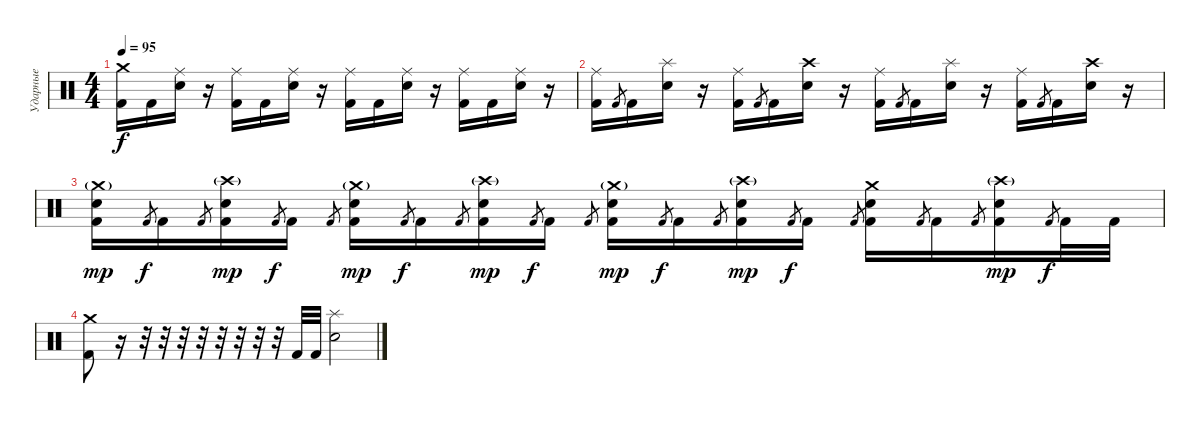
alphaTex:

\track ("Ударные" "Ударные") {instrument percussion}
\staff {score}
\articulation defaults
\ts (4 4)
\tempo 95
\clef neutral
\ks c
("Crash medium (hit)" "Kick (hit) 2").16{dy f} "Kick (hit) 2".16 ("Ride (middle)" "Electric Snare (hit)").16 r.16 ("Ride (middle)" "Kick (hit) 2").16 "Kick (hit) 2".16 ("Ride (middle)" "Electric Snare (hit)").16 r.16 ("Ride (middle)" "Kick (hit) 2").16 "Kick (hit) 2".16 ("Ride (middle)" "Electric Snare (hit)").16 r.16 ("Ride (middle)" "Kick (hit) 2").16 "Kick (hit) 2".16 ("Ride (middle)" "Electric Snare (hit)").16 r.16 |
("Ride (middle)" "Kick (hit) 2").16 "Kick (hit) 2".8{gr} "Kick (hit) 2".16 ("Splash (hit)" "Electric Snare (hit)").16 r.16 ("Ride (middle)" "Kick (hit) 2").16 "Kick (hit) 2".8{gr} "Kick (hit) 2".16 ("Crash high (hit)" "Electric Snare (hit)").16 r.16 ("Ride (middle)" "Kick (hit) 2").16 "Kick (hit) 2".8{gr} "Kick (hit) 2".16 ("Splash (hit)" "Electric Snare (hit)").16 r.16 ("Ride (middle)" "Kick (hit) 2").16 "Kick (hit) 2".8{gr} "Kick (hit) 2".16 ("Crash high (hit)" "Electric Snare (hit)").16 r.16 |
("Crash medium (hit)"{g} "Electric Snare (hit)" "Kick (hit) 2").16{dy mp} "Kick (hit) 2".8{gr dy f} "Kick (hit) 2".16 "Kick (hit) 2".8{gr} ("Crash high (hit)"{g} "Electric Snare (hit)" "Kick (hit) 2").16{dy mp} "Kick (hit) 2".8{gr dy f} "Kick (hit) 2".16 "Kick (hit) 2".8{gr} ("Crash medium (hit)"{g} "Electric Snare (hit)" "Kick (hit) 2").16{dy mp} "Kick (hit) 2".8{gr dy f} "Kick (hit) 2".16 "Kick (hit) 2".8{gr} ("Crash high (hit)"{g} "Electric Snare (hit)" "Kick (hit) 2").16{dy mp} "Kick (hit) 2".8{gr dy f} "Kick (hit) 2".16 "Kick (hit) 2".8{gr} ("Crash medium (hit)"{g} "Electric Snare (hit)" "Kick (hit) 2").16{dy mp} "Kick (hit) 2".8{gr dy f} "Kick (hit) 2".16 "Kick (hit) 2".8{gr} ("Crash high (hit)"{g} "Electric Snare (hit)" "Kick (hit) 2").16{dy mp} "Kick (hit) 2".8{gr dy f} "Kick (hit) 2".16 "Kick (hit) 2".8{gr} ("Crash medium (hit)" "Electric Snare (hit)" "Kick (hit) 2").16 "Kick (hit) 2".8{gr} "Kick (hit) 2".16 "Kick (hit) 2".8{gr} ("Crash high (hit)"{g} "Electric Snare (hit)" "Kick (hit) 2").16{dy mp} "Kick (hit) 2".8{gr dy f} "Kick (hit) 2".32 "Kick (hit) 2".32 |
("Crash medium (hit)" "Kick (hit) 2").8 r.16 r.32 r.32 r.32 r.32 r.32 r.32 r.32 r.32 "Kick (hit) 2".32 "Kick (hit) 2".32 ("Splash (hit)" "Electric Snare (hit)").2
